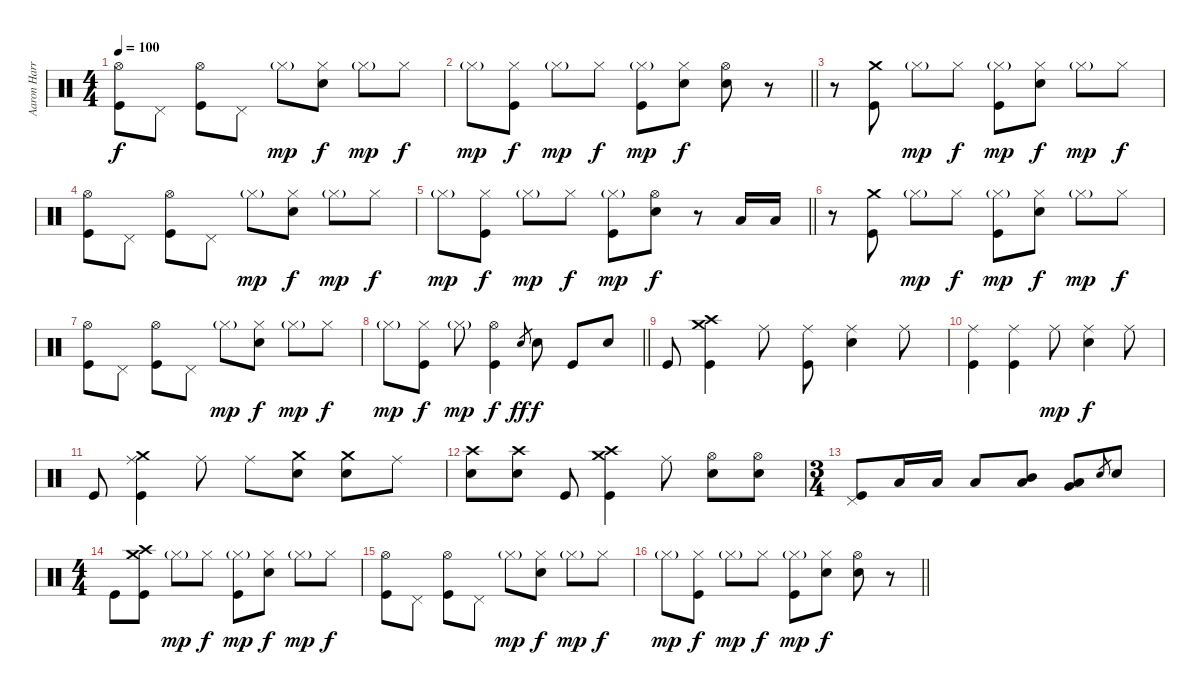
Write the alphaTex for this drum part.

\track ("Aaron Harris" "Aaron Harr") {instrument percussion}
\staff {score}
\articulation defaults
\ts (4 4)
\tempo 100
\clef neutral
\ks c
("Hi-Hat (open)" "Kick (hit)").8{dy f} "Pedal Hi-Hat (hit)".8 ("Hi-Hat (open)" "Kick (hit)").8 "Pedal Hi-Hat (hit)".8 "Hi-Hat (closed)"{g}.8{dy mp} ("Hi-Hat (closed)" "Electric Snare (hit)").8{dy f} "Hi-Hat (closed)"{g}.8{dy mp} "Hi-Hat (closed)".8{dy f} |
\barLineRight lightlight "Hi-Hat (closed)"{g}.8{dy mp}
("Hi-Hat (closed)" "Kick (hit)").8{dy f} "Hi-Hat (closed)"{g}.8{dy mp} "Hi-Hat (closed)".8{dy f} ("Hi-Hat (closed)"{g} "Kick (hit)").8{dy mp} ("Hi-Hat (closed)" "Electric Snare (hit)").8{dy f} ("Hi-Hat (open)" "Electric Snare (hit)").8 r.8 |
r.8 ("Crash medium (hit)" "Kick (hit)").8 "Hi-Hat (closed)"{g}.8{dy mp} "Hi-Hat (closed)".8{dy f} ("Hi-Hat (closed)"{g} "Kick (hit)").8{dy mp} ("Hi-Hat (closed)" "Electric Snare (hit)").8{dy f} "Hi-Hat (closed)"{g}.8{dy mp} "Hi-Hat (closed)".8{dy f} |
("Hi-Hat (open)" "Kick (hit)").8 "Pedal Hi-Hat (hit)".8 ("Hi-Hat (open)" "Kick (hit)").8 "Pedal Hi-Hat (hit)".8 "Hi-Hat (closed)"{g}.8{dy mp} ("Hi-Hat (closed)" "Electric Snare (hit)").8{dy f} "Hi-Hat (closed)"{g}.8{dy mp} "Hi-Hat (closed)".8{dy f} |
\barLineRight lightlight "Hi-Hat (closed)"{g}.8{dy mp}
("Hi-Hat (closed)" "Kick (hit)").8{dy f} "Hi-Hat (closed)"{g}.8{dy mp} "Hi-Hat (closed)".8{dy f} ("Hi-Hat (closed)"{g} "Kick (hit)").8{dy mp} ("Hi-Hat (open)" "Electric Snare (hit)").8{dy f} r.8 "Low Tom (hit)".16 "Low Tom (hit)".16 |
r.8 ("Crash medium (hit)" "Kick (hit)").8 "Hi-Hat (closed)"{g}.8{dy mp} "Hi-Hat (closed)".8{dy f} ("Hi-Hat (closed)"{g} "Kick (hit)").8{dy mp} ("Hi-Hat (closed)" "Electric Snare (hit)").8{dy f} "Hi-Hat (closed)"{g}.8{dy mp} "Hi-Hat (closed)".8{dy f} |
("Hi-Hat (open)" "Kick (hit)").8 "Pedal Hi-Hat (hit)".8 ("Hi-Hat (open)" "Kick (hit)").8 "Pedal Hi-Hat (hit)".8 "Hi-Hat (closed)"{g}.8{dy mp} ("Hi-Hat (closed)" "Electric Snare (hit)").8{dy f} "Hi-Hat (closed)"{g}.8{dy mp} "Hi-Hat (closed)".8{dy f} |
\barLineRight lightlight "Hi-Hat (closed)"{g}.8{dy mp}
("Hi-Hat (closed)" "Kick (hit)").8{dy f} "Hi-Hat (closed)"{g}.8{dy mp} ("Hi-Hat (open)" "Kick (hit)").4{dy f} "Electric Snare (hit)".8{gr dy ff} "Electric Snare (hit)".8{dy f} "Kick (hit)".8 "Electric Snare (hit)".8 |
"Kick (hit)".8 ("Crash medium (hit)" "Crash high (hit)" "Kick (hit)").4 "Ride (middle)".8 ("Ride (middle)" "Kick (hit)").8 ("Ride (middle)" "Electric Snare (hit)").4 "Ride (middle)".8 |
("Ride (middle)" "Kick (hit)").4 ("Ride (middle)" "Kick (hit)").4 "Ride (middle)".8{dy mp} ("Ride (middle)" "Electric Snare (hit)").4{dy f} "Ride (middle)".8 |
"Kick (hit)".8 ("Crash medium (hit)" "Ride (middle)" "Kick (hit)").4 "Ride (middle)".8 "Ride (middle)".8 ("Crash medium (hit)" "Electric Snare (hit)").8 ("Crash medium (hit)" "Electric Snare (hit)").8 "Ride (middle)".8 |
("Crash high (hit)" "Electric Snare (hit)").8 ("Crash high (hit)" "Electric Snare (hit)").8 "Kick (hit)".8 ("Crash medium (hit)" "Crash high (hit)" "Kick (hit)").4 "Ride (middle)".8 ("Hi-Hat (open)" "Electric Snare (hit)").8 ("Hi-Hat (open)" "Electric Snare (hit)").8 |
\ts (3 4)
("Pedal Hi-Hat (hit)" "Kick (hit)").8 "Low Tom (hit)".16 "Low Tom (hit)".16 "Low Tom (hit)".8 ("Mid Tom (hit)" "Low Tom (hit)").8 ("Low Tom (hit)" "Very Low Tom (hit)").8 "Electric Snare (hit)".8{gr} "Electric Snare (hit)".8 |
\ts (4 4)
"Kick (hit)".8 ("Crash medium (hit)" "Crash high (hit)" "Kick (hit)").8 "Hi-Hat (closed)"{g}.8{dy mp} "Hi-Hat (closed)".8{dy f} ("Hi-Hat (closed)"{g} "Kick (hit)").8{dy mp} ("Hi-Hat (closed)" "Electric Snare (hit)").8{dy f} "Hi-Hat (closed)"{g}.8{dy mp} "Hi-Hat (closed)".8{dy f} |
("Hi-Hat (open)" "Kick (hit)").8 "Pedal Hi-Hat (hit)".8 ("Hi-Hat (open)" "Kick (hit)").8 "Pedal Hi-Hat (hit)".8 "Hi-Hat (closed)"{g}.8{dy mp} ("Hi-Hat (closed)" "Electric Snare (hit)").8{dy f} "Hi-Hat (closed)"{g}.8{dy mp} "Hi-Hat (closed)".8{dy f} |
\barLineRight lightlight "Hi-Hat (closed)"{g}.8{dy mp}
("Hi-Hat (closed)" "Kick (hit)").8{dy f} "Hi-Hat (closed)"{g}.8{dy mp} "Hi-Hat (closed)".8{dy f} ("Hi-Hat (closed)"{g} "Kick (hit)").8{dy mp} ("Hi-Hat (closed)" "Electric Snare (hit)").8{dy f} ("Hi-Hat (open)" "Electric Snare (hit)").8 r.8
